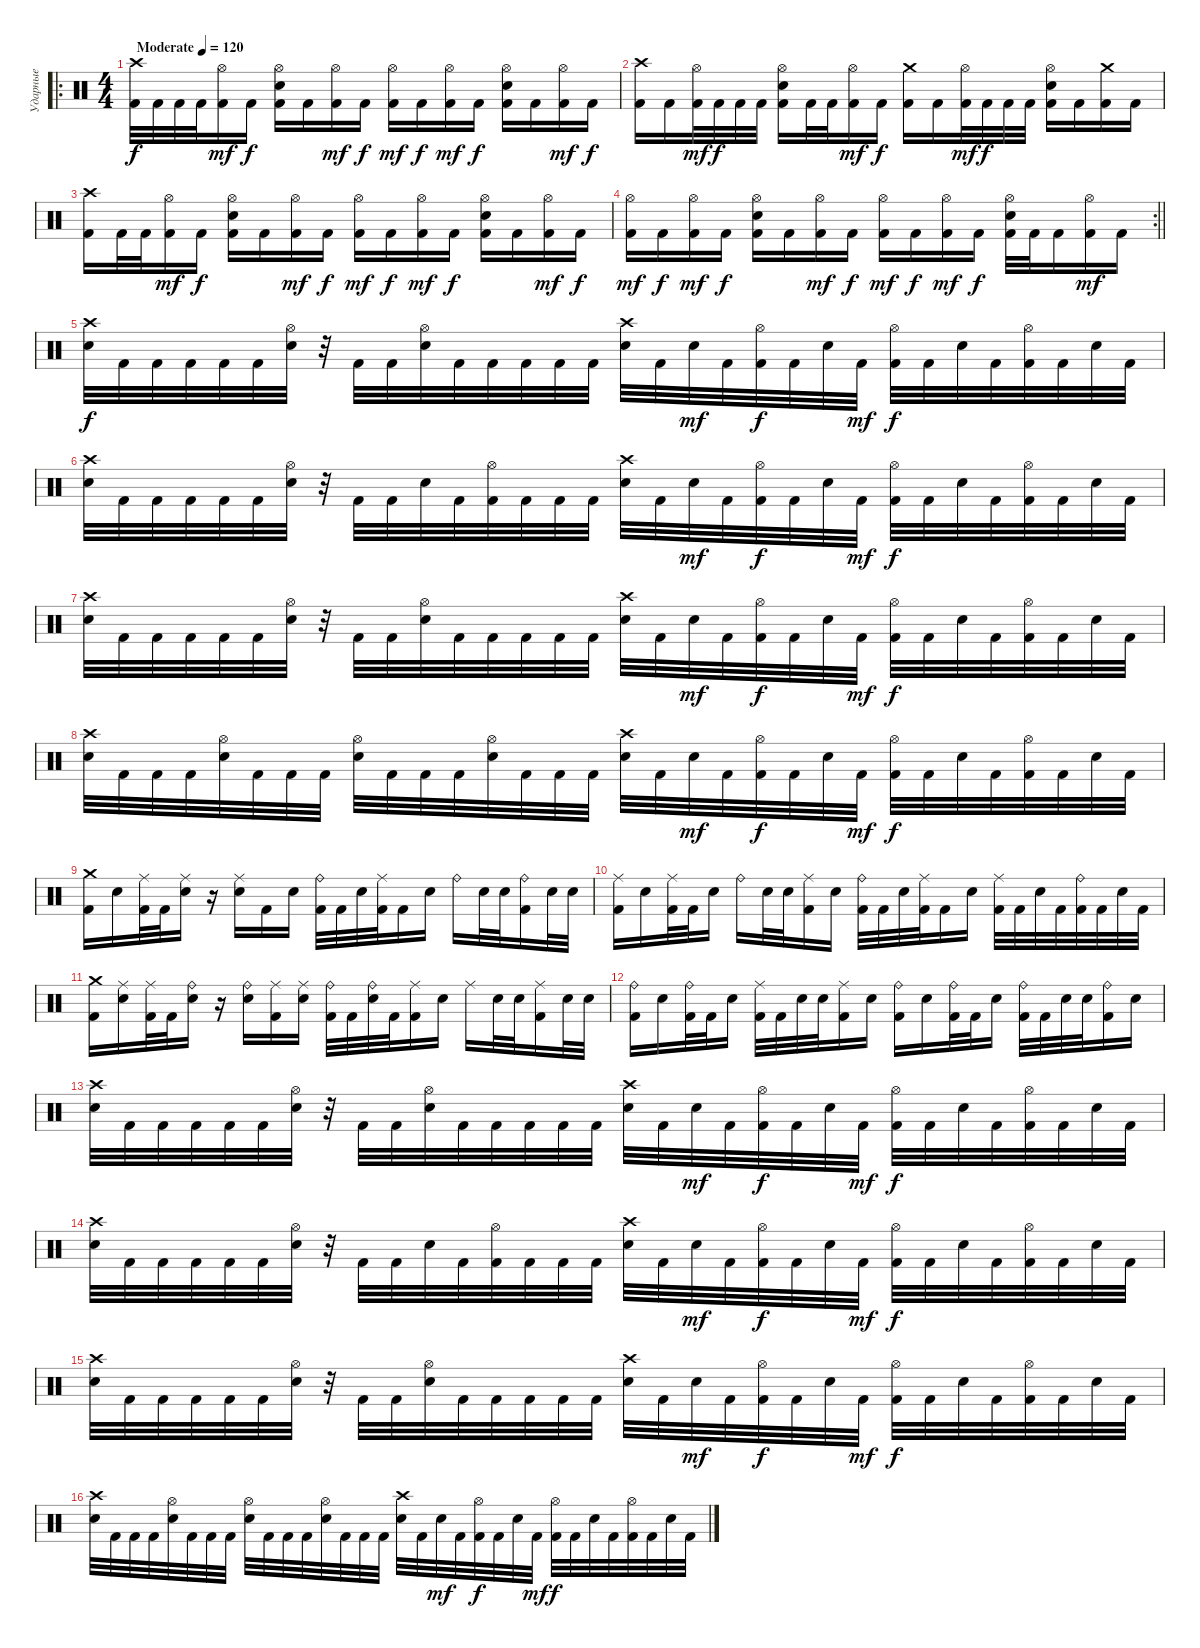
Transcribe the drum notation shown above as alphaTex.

\track ("Ударные" "Ударные") {instrument percussion}
\staff {score}
\articulation defaults
\ro
\ts (4 4)
\tempo (120 "Moderate")
\clef neutral
\ks c
("Crash high (hit)" "Kick (hit) 2").32{dy f} "Kick (hit) 2".32 "Kick (hit) 2".32 "Kick (hit) 2".32 ("Hi-Hat (open)" "Kick (hit) 2").16{dy mf} "Kick (hit) 2".16{dy f} ("Hi-Hat (open)" "Electric Snare (hit)" "Kick (hit) 2").16 "Kick (hit) 2".16 ("Hi-Hat (open)" "Kick (hit) 2").16{dy mf} "Kick (hit) 2".16{dy f} ("Hi-Hat (open)" "Kick (hit) 2").16{dy mf} "Kick (hit) 2".16{dy f} ("Hi-Hat (open)" "Kick (hit) 2").16{dy mf} "Kick (hit) 2".16{dy f} ("Hi-Hat (open)" "Electric Snare (hit)" "Kick (hit) 2").16 "Kick (hit) 2".16 ("Hi-Hat (open)" "Kick (hit) 2").16{dy mf} "Kick (hit) 2".16{dy f} |
("Crash high (hit)" "Kick (hit) 2").16 "Kick (hit) 2".16 ("Hi-Hat (open)" "Kick (hit) 2").32{dy mf} "Kick (hit) 2".32{dy f} "Kick (hit) 2".32 "Kick (hit) 2".32 ("Hi-Hat (open)" "Electric Snare (hit)" "Kick (hit) 2").16 "Kick (hit) 2".32 "Kick (hit) 2".32 ("Hi-Hat (open)" "Kick (hit) 2").16{dy mf} "Kick (hit) 2".16{dy f} ("Crash medium (hit)" "Kick (hit) 2").16 "Kick (hit) 2".16 ("Hi-Hat (open)" "Kick (hit) 2").32{dy mf} "Kick (hit) 2".32{dy f} "Kick (hit) 2".32 "Kick (hit) 2".32 ("Hi-Hat (open)" "Electric Snare (hit)" "Kick (hit) 2").16 "Kick (hit) 2".16 ("Crash medium (hit)" "Kick (hit) 2").16 "Kick (hit) 2".16 |
("Crash high (hit)" "Kick (hit) 2").16 "Kick (hit) 2".32 "Kick (hit) 2".32 ("Hi-Hat (open)" "Kick (hit) 2").16{dy mf} "Kick (hit) 2".16{dy f} ("Hi-Hat (open)" "Electric Snare (hit)" "Kick (hit) 2").16 "Kick (hit) 2".16 ("Hi-Hat (open)" "Kick (hit) 2").16{dy mf} "Kick (hit) 2".16{dy f} ("Hi-Hat (open)" "Kick (hit) 2").16{dy mf} "Kick (hit) 2".16{dy f} ("Hi-Hat (open)" "Kick (hit) 2").16{dy mf} "Kick (hit) 2".16{dy f} ("Hi-Hat (open)" "Electric Snare (hit)" "Kick (hit) 2").16 "Kick (hit) 2".16 ("Hi-Hat (open)" "Kick (hit) 2").16{dy mf} "Kick (hit) 2".16{dy f} |
\rc 2
\barLineRight lightlight
("Hi-Hat (open)" "Kick (hit) 2").16{dy mf} "Kick (hit) 2".16{dy f} ("Hi-Hat (open)" "Kick (hit) 2").16{dy mf} "Kick (hit) 2".16{dy f} ("Hi-Hat (open)" "Electric Snare (hit)" "Kick (hit) 2").16 "Kick (hit) 2".16 ("Hi-Hat (open)" "Kick (hit) 2").16{dy mf} "Kick (hit) 2".16{dy f} ("Hi-Hat (open)" "Kick (hit) 2").16{dy mf} "Kick (hit) 2".16{dy f} ("Hi-Hat (open)" "Kick (hit) 2").16{dy mf} "Kick (hit) 2".16{dy f} ("Hi-Hat (open)" "Electric Snare (hit)" "Kick (hit) 2").32 "Kick (hit) 2".32 "Kick (hit) 2".16 ("Hi-Hat (open)" "Kick (hit) 2").16{dy mf} "Kick (hit) 2".16 |
("Crash high (hit)" "Electric Snare (hit)").32{dy f} "Kick (hit) 2".32 "Kick (hit) 2".32 "Kick (hit) 2".32 "Kick (hit) 2".32 "Kick (hit) 2".32 ("Hi-Hat (open)" "Electric Snare (hit)").32 r.32 "Kick (hit) 2".32 "Kick (hit) 2".32 ("Hi-Hat (open)" "Electric Snare (hit)").32 "Kick (hit) 2".32 "Kick (hit) 2".32 "Kick (hit) 2".32 "Kick (hit) 2".32 "Kick (hit) 2".32 ("Crash high (hit)" "Electric Snare (hit)").32 "Kick (hit) 2".32 "Electric Snare (hit)".32{dy mf} "Kick (hit) 2".32 ("Hi-Hat (open)" "Kick (hit) 2").32{dy f} "Kick (hit) 2".32 "Electric Snare (hit)".32 "Kick (hit) 2".32{dy mf} ("Hi-Hat (open)" "Kick (hit) 2").32{dy f} "Kick (hit) 2".32 "Electric Snare (hit)".32 "Kick (hit) 2".32 ("Hi-Hat (open)" "Kick (hit) 2").32 "Kick (hit) 2".32 "Electric Snare (hit)".32 "Kick (hit) 2".32 |
("Crash high (hit)" "Electric Snare (hit)").32 "Kick (hit) 2".32 "Kick (hit) 2".32 "Kick (hit) 2".32 "Kick (hit) 2".32 "Kick (hit) 2".32 ("Hi-Hat (open)" "Electric Snare (hit)").32 r.32 "Kick (hit) 2".32 "Kick (hit) 2".32 "Electric Snare (hit)".32 "Kick (hit) 2".32 ("Hi-Hat (open)" "Kick (hit) 2").32 "Kick (hit) 2".32 "Kick (hit) 2".32 "Kick (hit) 2".32 ("Crash high (hit)" "Electric Snare (hit)").32 "Kick (hit) 2".32 "Electric Snare (hit)".32{dy mf} "Kick (hit) 2".32 ("Hi-Hat (open)" "Kick (hit) 2").32{dy f} "Kick (hit) 2".32 "Electric Snare (hit)".32 "Kick (hit) 2".32{dy mf} ("Hi-Hat (open)" "Kick (hit) 2").32{dy f} "Kick (hit) 2".32 "Electric Snare (hit)".32 "Kick (hit) 2".32 ("Hi-Hat (open)" "Kick (hit) 2").32 "Kick (hit) 2".32 "Electric Snare (hit)".32 "Kick (hit) 2".32 |
("Crash high (hit)" "Electric Snare (hit)").32 "Kick (hit) 2".32 "Kick (hit) 2".32 "Kick (hit) 2".32 "Kick (hit) 2".32 "Kick (hit) 2".32 ("Hi-Hat (open)" "Electric Snare (hit)").32 r.32 "Kick (hit) 2".32 "Kick (hit) 2".32 ("Hi-Hat (open)" "Electric Snare (hit)").32 "Kick (hit) 2".32 "Kick (hit) 2".32 "Kick (hit) 2".32 "Kick (hit) 2".32 "Kick (hit) 2".32 ("Crash high (hit)" "Electric Snare (hit)").32 "Kick (hit) 2".32 "Electric Snare (hit)".32{dy mf} "Kick (hit) 2".32 ("Hi-Hat (open)" "Kick (hit) 2").32{dy f} "Kick (hit) 2".32 "Electric Snare (hit)".32 "Kick (hit) 2".32{dy mf} ("Hi-Hat (open)" "Kick (hit) 2").32{dy f} "Kick (hit) 2".32 "Electric Snare (hit)".32 "Kick (hit) 2".32 ("Hi-Hat (open)" "Kick (hit) 2").32 "Kick (hit) 2".32 "Electric Snare (hit)".32 "Kick (hit) 2".32 |
("Crash high (hit)" "Electric Snare (hit)").32 "Kick (hit) 2".32 "Kick (hit) 2".32 "Kick (hit) 2".32 ("Hi-Hat (open)" "Electric Snare (hit)").32 "Kick (hit) 2".32 "Kick (hit) 2".32 "Kick (hit) 2".32 ("Hi-Hat (open)" "Electric Snare (hit)").32 "Kick (hit) 2".32 "Kick (hit) 2".32 "Kick (hit) 2".32 ("Hi-Hat (open)" "Electric Snare (hit)").32 "Kick (hit) 2".32 "Kick (hit) 2".32 "Kick (hit) 2".32 ("Crash high (hit)" "Electric Snare (hit)").32 "Kick (hit) 2".32 "Electric Snare (hit)".32{dy mf} "Kick (hit) 2".32 ("Hi-Hat (open)" "Kick (hit) 2").32{dy f} "Kick (hit) 2".32 "Electric Snare (hit)".32 "Kick (hit) 2".32{dy mf} ("Hi-Hat (open)" "Kick (hit) 2").32{dy f} "Kick (hit) 2".32 "Electric Snare (hit)".32 "Kick (hit) 2".32 ("Hi-Hat (open)" "Kick (hit) 2").32 "Kick (hit) 2".32 "Electric Snare (hit)".32 "Kick (hit) 2".32 |
("Crash medium (hit)" "Kick (hit) 2").16 "Electric Snare (hit)".16 ("Ride (middle)" "Kick (hit) 2").32 "Kick (hit) 2".32 ("Ride (middle)" "Electric Snare (hit)").16 r.16 ("Ride (middle)" "Electric Snare (hit)").16 "Kick (hit) 2".16 "Electric Snare (hit)".16 ("Ride (bell)" "Kick (hit) 2").32 "Kick (hit) 2".32 "Electric Snare (hit)".32 ("Ride (middle)" "Kick (hit) 2").32 "Kick (hit) 2".16 "Electric Snare (hit)".16 "Ride (bell)".16 "Electric Snare (hit)".32 "Electric Snare (hit)".32 ("Ride (bell)" "Kick (hit) 2").16 "Electric Snare (hit)".32 "Electric Snare (hit)".32 |
("Ride (middle)" "Kick (hit) 2").16 "Electric Snare (hit)".16 ("Ride (middle)" "Kick (hit) 2").32 "Kick (hit) 2".32 "Electric Snare (hit)".16 "Ride (bell)".16 "Electric Snare (hit)".32 "Electric Snare (hit)".32 ("Ride (middle)" "Kick (hit) 2").16 "Electric Snare (hit)".16 ("Ride (bell)" "Kick (hit) 2").32 "Kick (hit) 2".32 "Electric Snare (hit)".32 ("Ride (middle)" "Kick (hit) 2").32 "Kick (hit) 2".16 "Electric Snare (hit)".16 ("Ride (middle)" "Kick (hit) 2").32 "Kick (hit) 2".32 "Electric Snare (hit)".32 "Kick (hit) 2".32 ("Ride (bell)" "Kick (hit) 2").32 "Kick (hit) 2".32 "Electric Snare (hit)".32 "Kick (hit) 2".32 |
("Crash medium (hit)" "Kick (hit) 2").16 ("Ride (middle)" "Electric Snare (hit)").16 ("Ride (middle)" "Kick (hit) 2").32 "Kick (hit) 2".32 ("Ride (bell)" "Electric Snare (hit)").16 r.16 ("Ride (bell)" "Electric Snare (hit)").16 ("Ride (middle)" "Kick (hit) 2").16 ("Ride (middle)" "Electric Snare (hit)").16 ("Ride (bell)" "Kick (hit) 2").32 "Kick (hit) 2".32 ("Ride (bell)" "Electric Snare (hit)").32 "Kick (hit) 2".32 ("Ride (middle)" "Kick (hit) 2").16 "Electric Snare (hit)".16 "Ride (middle)".16 "Electric Snare (hit)".32 "Electric Snare (hit)".32 ("Ride (middle)" "Kick (hit) 2").16 "Electric Snare (hit)".32 "Electric Snare (hit)".32 |
("Ride (bell)" "Kick (hit) 2").16 "Electric Snare (hit)".16 ("Ride (bell)" "Kick (hit) 2").32 "Kick (hit) 2".32 "Electric Snare (hit)".16 ("Ride (middle)" "Kick (hit) 2").32 "Kick (hit) 2".32 "Electric Snare (hit)".32 "Electric Snare (hit)".32 ("Ride (middle)" "Kick (hit) 2").16 "Electric Snare (hit)".16 ("Ride (bell)" "Kick (hit) 2").16 "Electric Snare (hit)".16 ("Ride (bell)" "Kick (hit) 2").32 "Kick (hit) 2".32 "Electric Snare (hit)".16 ("Ride (bell)" "Kick (hit) 2").32 "Kick (hit) 2".32 "Electric Snare (hit)".32 "Electric Snare (hit)".32 ("Ride (bell)" "Kick (hit) 2").16 "Electric Snare (hit)".16 |
("Crash high (hit)" "Electric Snare (hit)").32 "Kick (hit) 2".32 "Kick (hit) 2".32 "Kick (hit) 2".32 "Kick (hit) 2".32 "Kick (hit) 2".32 ("Hi-Hat (open)" "Electric Snare (hit)").32 r.32 "Kick (hit) 2".32 "Kick (hit) 2".32 ("Hi-Hat (open)" "Electric Snare (hit)").32 "Kick (hit) 2".32 "Kick (hit) 2".32 "Kick (hit) 2".32 "Kick (hit) 2".32 "Kick (hit) 2".32 ("Crash high (hit)" "Electric Snare (hit)").32 "Kick (hit) 2".32 "Electric Snare (hit)".32{dy mf} "Kick (hit) 2".32 ("Hi-Hat (open)" "Kick (hit) 2").32{dy f} "Kick (hit) 2".32 "Electric Snare (hit)".32 "Kick (hit) 2".32{dy mf} ("Hi-Hat (open)" "Kick (hit) 2").32{dy f} "Kick (hit) 2".32 "Electric Snare (hit)".32 "Kick (hit) 2".32 ("Hi-Hat (open)" "Kick (hit) 2").32 "Kick (hit) 2".32 "Electric Snare (hit)".32 "Kick (hit) 2".32 |
("Crash high (hit)" "Electric Snare (hit)").32 "Kick (hit) 2".32 "Kick (hit) 2".32 "Kick (hit) 2".32 "Kick (hit) 2".32 "Kick (hit) 2".32 ("Hi-Hat (open)" "Electric Snare (hit)").32 r.32 "Kick (hit) 2".32 "Kick (hit) 2".32 "Electric Snare (hit)".32 "Kick (hit) 2".32 ("Hi-Hat (open)" "Kick (hit) 2").32 "Kick (hit) 2".32 "Kick (hit) 2".32 "Kick (hit) 2".32 ("Crash high (hit)" "Electric Snare (hit)").32 "Kick (hit) 2".32 "Electric Snare (hit)".32{dy mf} "Kick (hit) 2".32 ("Hi-Hat (open)" "Kick (hit) 2").32{dy f} "Kick (hit) 2".32 "Electric Snare (hit)".32 "Kick (hit) 2".32{dy mf} ("Hi-Hat (open)" "Kick (hit) 2").32{dy f} "Kick (hit) 2".32 "Electric Snare (hit)".32 "Kick (hit) 2".32 ("Hi-Hat (open)" "Kick (hit) 2").32 "Kick (hit) 2".32 "Electric Snare (hit)".32 "Kick (hit) 2".32 |
("Crash high (hit)" "Electric Snare (hit)").32 "Kick (hit) 2".32 "Kick (hit) 2".32 "Kick (hit) 2".32 "Kick (hit) 2".32 "Kick (hit) 2".32 ("Hi-Hat (open)" "Electric Snare (hit)").32 r.32 "Kick (hit) 2".32 "Kick (hit) 2".32 ("Hi-Hat (open)" "Electric Snare (hit)").32 "Kick (hit) 2".32 "Kick (hit) 2".32 "Kick (hit) 2".32 "Kick (hit) 2".32 "Kick (hit) 2".32 ("Crash high (hit)" "Electric Snare (hit)").32 "Kick (hit) 2".32 "Electric Snare (hit)".32{dy mf} "Kick (hit) 2".32 ("Hi-Hat (open)" "Kick (hit) 2").32{dy f} "Kick (hit) 2".32 "Electric Snare (hit)".32 "Kick (hit) 2".32{dy mf} ("Hi-Hat (open)" "Kick (hit) 2").32{dy f} "Kick (hit) 2".32 "Electric Snare (hit)".32 "Kick (hit) 2".32 ("Hi-Hat (open)" "Kick (hit) 2").32 "Kick (hit) 2".32 "Electric Snare (hit)".32 "Kick (hit) 2".32 |
("Crash high (hit)" "Electric Snare (hit)").32 "Kick (hit) 2".32 "Kick (hit) 2".32 "Kick (hit) 2".32 ("Hi-Hat (open)" "Electric Snare (hit)").32 "Kick (hit) 2".32 "Kick (hit) 2".32 "Kick (hit) 2".32 ("Hi-Hat (open)" "Electric Snare (hit)").32 "Kick (hit) 2".32 "Kick (hit) 2".32 "Kick (hit) 2".32 ("Hi-Hat (open)" "Electric Snare (hit)").32 "Kick (hit) 2".32 "Kick (hit) 2".32 "Kick (hit) 2".32 ("Crash high (hit)" "Electric Snare (hit)").32 "Kick (hit) 2".32 "Electric Snare (hit)".32{dy mf} "Kick (hit) 2".32 ("Hi-Hat (open)" "Kick (hit) 2").32{dy f} "Kick (hit) 2".32 "Electric Snare (hit)".32 "Kick (hit) 2".32{dy mf} ("Hi-Hat (open)" "Kick (hit) 2").32{dy f} "Kick (hit) 2".32 "Electric Snare (hit)".32 "Kick (hit) 2".32 ("Hi-Hat (open)" "Kick (hit) 2").32 "Kick (hit) 2".32 "Electric Snare (hit)".32 "Kick (hit) 2".32
